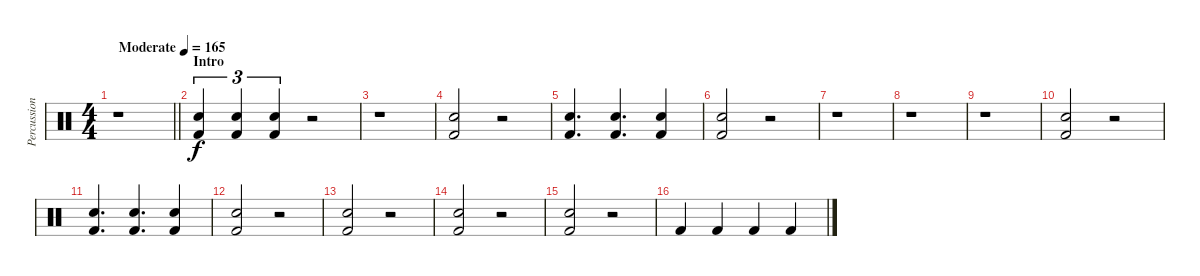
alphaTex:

\track ("Percussion" "Percussion") {instrument percussion}
\staff {score}
\articulation defaults
\ts (4 4)
\tempo (165 "Moderate")
\clef neutral
\barLineRight lightlight
\ks c
r.1{dy f} |
\section ("" "Intro")
("Snare (hit) 2" "Kick (hit) 2").4{tu (3 2)} ("Snare (hit) 2" "Kick (hit) 2").4{tu (3 2)} ("Snare (hit) 2" "Kick (hit) 2").4{tu (3 2)} r.2 |
r.1 |
("Snare (hit) 2" "Kick (hit) 2").2 r.2 |
("Snare (hit) 2" "Kick (hit) 2").4{d} ("Snare (hit) 2" "Kick (hit) 2").4{d} ("Snare (hit) 2" "Kick (hit) 2").4 |
("Snare (hit) 2" "Kick (hit) 2").2 r.2 |
r.1 |
r.1 |
r.1 |
("Electric Snare (hit)" "Kick (hit) 2").2 r.2 |
("Electric Snare (hit)" "Kick (hit) 2").4{d} ("Electric Snare (hit)" "Kick (hit) 2").4{d} ("Electric Snare (hit)" "Kick (hit) 2").4 |
("Electric Snare (hit)" "Kick (hit) 2").2 r.2 |
("Electric Snare (hit)" "Kick (hit) 2").2 r.2 |
("Electric Snare (hit)" "Kick (hit) 2").2 r.2 |
("Electric Snare (hit)" "Kick (hit) 2").2 r.2 |
"Kick (hit) 2".4 "Kick (hit) 2".4 "Kick (hit) 2".4 "Kick (hit) 2".4
